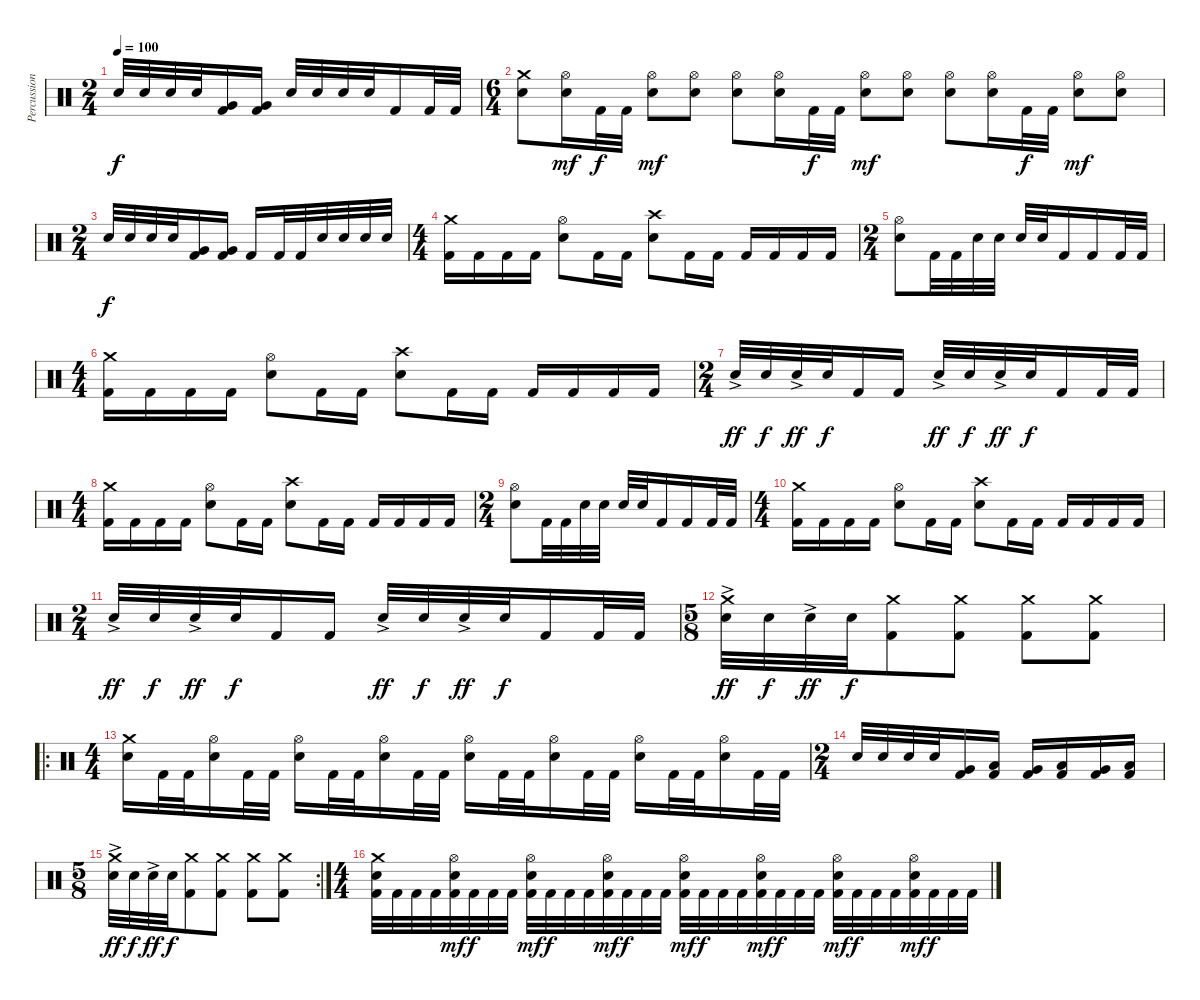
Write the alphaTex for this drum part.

\track ("Percussion" "Percussion") {instrument percussion}
\staff {score}
\articulation defaults
\ts (2 4)
\tempo 100
\clef neutral
\ks c "Electric Snare (hit)".32{dy f} "Electric Snare (hit)".32 "Electric Snare (hit)".32 "Electric Snare (hit)".32
("Very Low Tom (hit)" "Kick (hit) 2").16 ("Very Low Tom (hit)" "Kick (hit) 2").16 "Electric Snare (hit)".32 "Electric Snare (hit)".32 "Electric Snare (hit)".32 "Electric Snare (hit)".32 "Kick (hit) 2".16 "Kick (hit) 2".32 "Kick (hit) 2".32 |
\ts (6 4)
("Crash medium (hit)" "Electric Snare (hit)").8 ("Hi-Hat (open)" "Electric Snare (hit)").16{dy mf} "Kick (hit) 2".32{dy f} "Kick (hit) 2".32 ("Hi-Hat (open)" "Electric Snare (hit)").8{dy mf} ("Hi-Hat (open)" "Electric Snare (hit)").8 ("Hi-Hat (open)" "Electric Snare (hit)").8 ("Hi-Hat (open)" "Electric Snare (hit)").16 "Kick (hit) 2".32{dy f} "Kick (hit) 2".32 ("Hi-Hat (open)" "Electric Snare (hit)").8{dy mf} ("Hi-Hat (open)" "Electric Snare (hit)").8 ("Hi-Hat (open)" "Electric Snare (hit)").8 ("Hi-Hat (open)" "Electric Snare (hit)").16 "Kick (hit) 2".32{dy f} "Kick (hit) 2".32 ("Hi-Hat (open)" "Electric Snare (hit)").8{dy mf} ("Hi-Hat (open)" "Electric Snare (hit)").8 |
\ts (2 4)
"Electric Snare (hit)".32{dy f} "Electric Snare (hit)".32 "Electric Snare (hit)".32 "Electric Snare (hit)".32 ("Very Low Tom (hit)" "Kick (hit) 2").16 ("Very Low Tom (hit)" "Kick (hit) 2").16 "Kick (hit) 2".16 "Kick (hit) 2".32 "Kick (hit) 2".32 "Electric Snare (hit)".32 "Electric Snare (hit)".32 "Electric Snare (hit)".32 "Electric Snare (hit)".32 |
\ts (4 4)
("Crash medium (hit)" "Kick (hit) 2").16 "Kick (hit) 2".16 "Kick (hit) 2".16 "Kick (hit) 2".16 ("Hi-Hat (open)" "Electric Snare (hit)").8 "Kick (hit) 2".16 "Kick (hit) 2".16 ("Crash high (hit)" "Electric Snare (hit)").8 "Kick (hit) 2".16 "Kick (hit) 2".16 "Kick (hit) 2".16 "Kick (hit) 2".16 "Kick (hit) 2".16 "Kick (hit) 2".16 |
\ts (2 4)
("Hi-Hat (open)" "Electric Snare (hit)").8 "Kick (hit) 2".32 "Kick (hit) 2".32 "Electric Snare (hit)".32 "Electric Snare (hit)".32 "Electric Snare (hit)".32 "Electric Snare (hit)".32 "Kick (hit) 2".16 "Kick (hit) 2".16 "Kick (hit) 2".32 "Kick (hit) 2".32 |
\ts (4 4)
("Crash medium (hit)" "Kick (hit) 2").16 "Kick (hit) 2".16 "Kick (hit) 2".16 "Kick (hit) 2".16 ("Hi-Hat (open)" "Electric Snare (hit)").8 "Kick (hit) 2".16 "Kick (hit) 2".16 ("Crash high (hit)" "Electric Snare (hit)").8 "Kick (hit) 2".16 "Kick (hit) 2".16 "Kick (hit) 2".16 "Kick (hit) 2".16 "Kick (hit) 2".16 "Kick (hit) 2".16 |
\ts (2 4)
"Electric Snare (hit)"{ac}.32{dy ff} "Electric Snare (hit)".32{dy f} "Electric Snare (hit)"{ac}.32{dy ff} "Electric Snare (hit)".32{dy f} "Kick (hit) 2".16 "Kick (hit) 2".16 "Electric Snare (hit)"{ac}.32{dy ff} "Electric Snare (hit)".32{dy f} "Electric Snare (hit)"{ac}.32{dy ff} "Electric Snare (hit)".32{dy f} "Kick (hit) 2".16 "Kick (hit) 2".32 "Kick (hit) 2".32 |
\ts (4 4)
("Crash medium (hit)" "Kick (hit) 2").16 "Kick (hit) 2".16 "Kick (hit) 2".16 "Kick (hit) 2".16 ("Hi-Hat (open)" "Electric Snare (hit)").8 "Kick (hit) 2".16 "Kick (hit) 2".16 ("Crash high (hit)" "Electric Snare (hit)").8 "Kick (hit) 2".16 "Kick (hit) 2".16 "Kick (hit) 2".16 "Kick (hit) 2".16 "Kick (hit) 2".16 "Kick (hit) 2".16 |
\ts (2 4)
("Hi-Hat (open)" "Electric Snare (hit)").8 "Kick (hit) 2".32 "Kick (hit) 2".32 "Electric Snare (hit)".32 "Electric Snare (hit)".32 "Electric Snare (hit)".32 "Electric Snare (hit)".32 "Kick (hit) 2".16 "Kick (hit) 2".16 "Kick (hit) 2".32 "Kick (hit) 2".32 |
\ts (4 4)
("Crash medium (hit)" "Kick (hit) 2").16 "Kick (hit) 2".16 "Kick (hit) 2".16 "Kick (hit) 2".16 ("Hi-Hat (open)" "Electric Snare (hit)").8 "Kick (hit) 2".16 "Kick (hit) 2".16 ("Crash high (hit)" "Electric Snare (hit)").8 "Kick (hit) 2".16 "Kick (hit) 2".16 "Kick (hit) 2".16 "Kick (hit) 2".16 "Kick (hit) 2".16 "Kick (hit) 2".16 |
\ts (2 4)
"Electric Snare (hit)"{ac}.32{dy ff} "Electric Snare (hit)".32{dy f} "Electric Snare (hit)"{ac}.32{dy ff} "Electric Snare (hit)".32{dy f} "Kick (hit) 2".16 "Kick (hit) 2".16 "Electric Snare (hit)"{ac}.32{dy ff} "Electric Snare (hit)".32{dy f} "Electric Snare (hit)"{ac}.32{dy ff} "Electric Snare (hit)".32{dy f} "Kick (hit) 2".16 "Kick (hit) 2".32 "Kick (hit) 2".32 |
\ts (5 8)
("Crash medium (hit)" "Electric Snare (hit)"{ac}).32{dy ff} "Electric Snare (hit)".32{dy f} "Electric Snare (hit)"{ac}.32{dy ff} "Electric Snare (hit)".32{dy f} ("Crash medium (hit)" "Kick (hit) 2").8 ("Crash medium (hit)" "Kick (hit) 2").8 ("Crash medium (hit)" "Kick (hit) 2").8 ("Crash medium (hit)" "Kick (hit) 2").8 |
\ro
\ts (4 4)
("Crash medium (hit)" "Electric Snare (hit)").16 "Kick (hit) 2".32 "Kick (hit) 2".32 ("Hi-Hat (open)" "Electric Snare (hit)").16 "Kick (hit) 2".32 "Kick (hit) 2".32 ("Hi-Hat (open)" "Electric Snare (hit)").16 "Kick (hit) 2".32 "Kick (hit) 2".32 ("Hi-Hat (open)" "Electric Snare (hit)").16 "Kick (hit) 2".32 "Kick (hit) 2".32 ("Hi-Hat (open)" "Electric Snare (hit)").16 "Kick (hit) 2".32 "Kick (hit) 2".32 ("Hi-Hat (open)" "Electric Snare (hit)").16 "Kick (hit) 2".32 "Kick (hit) 2".32 ("Hi-Hat (open)" "Electric Snare (hit)").16 "Kick (hit) 2".32 "Kick (hit) 2".32 ("Hi-Hat (open)" "Electric Snare (hit)").16 "Kick (hit) 2".32 "Kick (hit) 2".32 |
\ts (2 4)
"Electric Snare (hit)".32 "Electric Snare (hit)".32 "Electric Snare (hit)".32 "Electric Snare (hit)".32 ("Very Low Tom (hit)" "Kick (hit) 2").16 ("Low Floor Tom (hit)" "Kick (hit) 2").16 ("Very Low Tom (hit)" "Kick (hit) 2").16 ("Low Tom (hit)" "Kick (hit) 2").16 ("Very Low Tom (hit)" "Kick (hit) 2").16 ("Low Tom (hit)" "Kick (hit) 2").16 |
\rc 2
\ts (5 8)
("Crash medium (hit)" "Electric Snare (hit)"{ac}).32{dy ff} "Electric Snare (hit)".32{dy f} "Electric Snare (hit)"{ac}.32{dy ff} "Electric Snare (hit)".32{dy f} ("Crash medium (hit)" "Kick (hit) 2").8 ("Crash medium (hit)" "Kick (hit) 2").8 ("Crash medium (hit)" "Kick (hit) 2").8 ("Crash medium (hit)" "Kick (hit) 2").8 |
\ts (4 4)
("Crash medium (hit)" "Electric Snare (hit)" "Kick (hit) 2").32 "Kick (hit) 2".32 "Kick (hit) 2".32 "Kick (hit) 2".32 ("Hi-Hat (open)" "Electric Snare (hit)" "Kick (hit) 2").32{dy mf} "Kick (hit) 2".32{dy f} "Kick (hit) 2".32 "Kick (hit) 2".32 ("Hi-Hat (open)" "Electric Snare (hit)" "Kick (hit) 2").32{dy mf} "Kick (hit) 2".32{dy f} "Kick (hit) 2".32 "Kick (hit) 2".32 ("Hi-Hat (open)" "Electric Snare (hit)" "Kick (hit) 2").32{dy mf} "Kick (hit) 2".32{dy f} "Kick (hit) 2".32 "Kick (hit) 2".32 ("Hi-Hat (open)" "Electric Snare (hit)" "Kick (hit) 2").32{dy mf} "Kick (hit) 2".32{dy f} "Kick (hit) 2".32 "Kick (hit) 2".32 ("Hi-Hat (open)" "Electric Snare (hit)" "Kick (hit) 2").32{dy mf} "Kick (hit) 2".32{dy f} "Kick (hit) 2".32 "Kick (hit) 2".32 ("Hi-Hat (open)" "Electric Snare (hit)" "Kick (hit) 2").32{dy mf} "Kick (hit) 2".32{dy f} "Kick (hit) 2".32 "Kick (hit) 2".32 ("Hi-Hat (open)" "Electric Snare (hit)" "Kick (hit) 2").32{dy mf} "Kick (hit) 2".32{dy f} "Kick (hit) 2".32 "Kick (hit) 2".32
